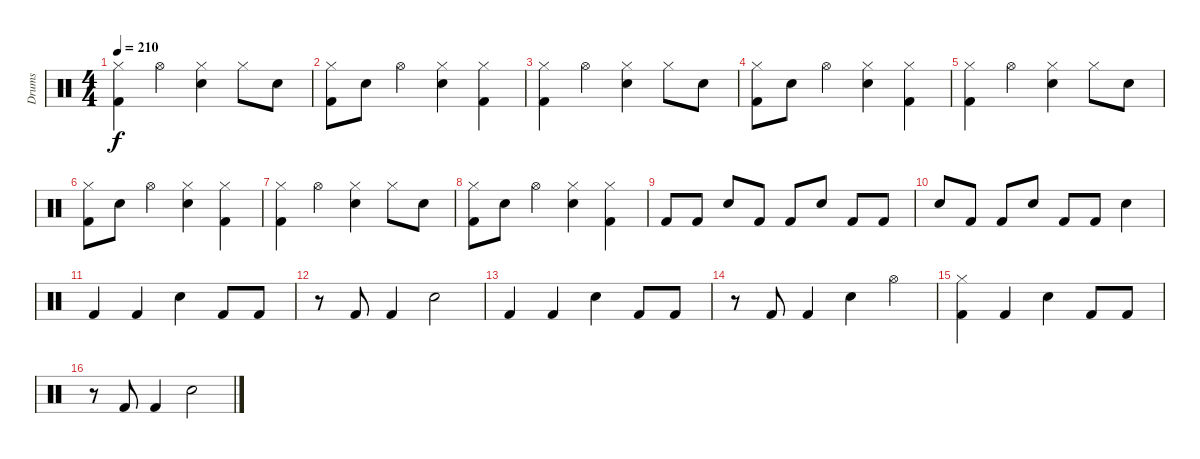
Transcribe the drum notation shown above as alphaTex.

\track ("Drums" "Drums") {instrument percussion}
\staff {score}
\articulation defaults
\ts (4 4)
\tempo 210
\clef neutral
\ks c
("Hi-Hat (closed)" "Kick (hit) 2").4{dy f} "Hi-Hat (open)".4 ("Hi-Hat (closed)" "Electric Snare (hit)").4 "Hi-Hat (closed)".8 "Electric Snare (hit)".8 |
("Hi-Hat (closed)" "Kick (hit) 2").8 "Electric Snare (hit)".8 "Hi-Hat (open)".4 ("Hi-Hat (closed)" "Electric Snare (hit)").4 ("Hi-Hat (closed)" "Kick (hit) 2").4 |
("Hi-Hat (closed)" "Kick (hit) 2").4 "Hi-Hat (open)".4 ("Hi-Hat (closed)" "Electric Snare (hit)").4 "Hi-Hat (closed)".8 "Electric Snare (hit)".8 |
("Hi-Hat (closed)" "Kick (hit) 2").8 "Electric Snare (hit)".8 "Hi-Hat (open)".4 ("Hi-Hat (closed)" "Electric Snare (hit)").4 ("Hi-Hat (closed)" "Kick (hit) 2").4 |
("Hi-Hat (closed)" "Kick (hit) 2").4 "Hi-Hat (open)".4 ("Hi-Hat (closed)" "Electric Snare (hit)").4 "Hi-Hat (closed)".8 "Electric Snare (hit)".8 |
("Hi-Hat (closed)" "Kick (hit) 2").8 "Electric Snare (hit)".8 "Hi-Hat (open)".4 ("Hi-Hat (closed)" "Electric Snare (hit)").4 ("Hi-Hat (closed)" "Kick (hit) 2").4 |
("Hi-Hat (closed)" "Kick (hit) 2").4 "Hi-Hat (open)".4 ("Hi-Hat (closed)" "Electric Snare (hit)").4 "Hi-Hat (closed)".8 "Electric Snare (hit)".8 |
("Hi-Hat (closed)" "Kick (hit) 2").8 "Electric Snare (hit)".8 "Hi-Hat (open)".4 ("Hi-Hat (closed)" "Electric Snare (hit)").4 ("Hi-Hat (closed)" "Kick (hit) 2").4 |
"Kick (hit) 2".8 "Kick (hit) 2".8 "Electric Snare (hit)".8 "Kick (hit) 2".8 "Kick (hit) 2".8 "Electric Snare (hit)".8 "Kick (hit) 2".8 "Kick (hit) 2".8 |
"Electric Snare (hit)".8 "Kick (hit) 2".8 "Kick (hit) 2".8 "Electric Snare (hit)".8 "Kick (hit) 2".8 "Kick (hit) 2".8 "Electric Snare (hit)".4 |
"Kick (hit) 2".4 "Kick (hit) 2".4 "Electric Snare (hit)".4 "Kick (hit) 2".8 "Kick (hit) 2".8 |
r.8 "Kick (hit) 2".8 "Kick (hit) 2".4 "Electric Snare (hit)".2 |
"Kick (hit) 2".4 "Kick (hit) 2".4 "Electric Snare (hit)".4 "Kick (hit) 2".8 "Kick (hit) 2".8 |
r.8 "Kick (hit) 2".8 "Kick (hit) 2".4 "Electric Snare (hit)".4 "Hi-Hat (open)".4 |
("Kick (hit) 2" "Hi-Hat (closed)").4 "Kick (hit) 2".4 "Electric Snare (hit)".4 "Kick (hit) 2".8 "Kick (hit) 2".8 |
r.8 "Kick (hit) 2".8 "Kick (hit) 2".4 "Electric Snare (hit)".2
